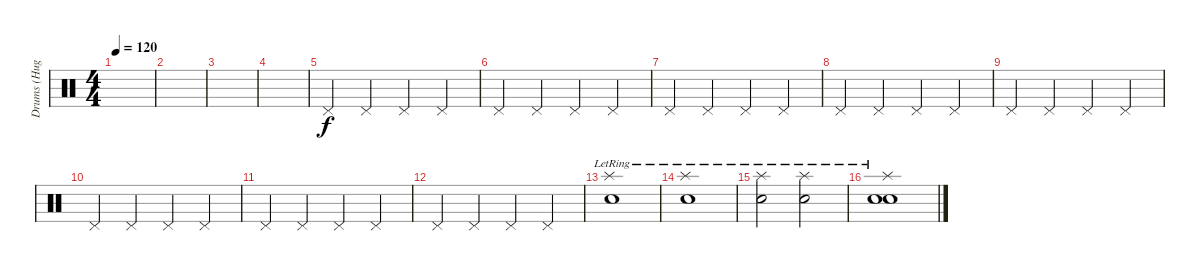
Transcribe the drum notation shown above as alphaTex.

\track ("Drums (Hugo)" "Drums (Hug") {instrument percussion}
\staff {score}
\articulation defaults
\ts (4 4)
\tempo 120
\clef neutral
\ks c
|
|
|
|
"Pedal Hi-Hat (hit)".4 "Pedal Hi-Hat (hit)".4 "Pedal Hi-Hat (hit)".4 "Pedal Hi-Hat (hit)".4 |
"Pedal Hi-Hat (hit)".4 "Pedal Hi-Hat (hit)".4 "Pedal Hi-Hat (hit)".4 "Pedal Hi-Hat (hit)".4 |
"Pedal Hi-Hat (hit)".4 "Pedal Hi-Hat (hit)".4 "Pedal Hi-Hat (hit)".4 "Pedal Hi-Hat (hit)".4 |
"Pedal Hi-Hat (hit)".4 "Pedal Hi-Hat (hit)".4 "Pedal Hi-Hat (hit)".4 "Pedal Hi-Hat (hit)".4 |
"Pedal Hi-Hat (hit)".4 "Pedal Hi-Hat (hit)".4 "Pedal Hi-Hat (hit)".4 "Pedal Hi-Hat (hit)".4 |
"Pedal Hi-Hat (hit)".4 "Pedal Hi-Hat (hit)".4 "Pedal Hi-Hat (hit)".4 "Pedal Hi-Hat (hit)".4 |
"Pedal Hi-Hat (hit)".4 "Pedal Hi-Hat (hit)".4 "Pedal Hi-Hat (hit)".4 "Pedal Hi-Hat (hit)".4 |
"Pedal Hi-Hat (hit)".4 "Pedal Hi-Hat (hit)".4 "Pedal Hi-Hat (hit)".4 "Pedal Hi-Hat (hit)".4 |
("Splash (hit)"{lr} "Electric Snare (hit)").1 |
("Splash (hit)"{lr} "Electric Snare (hit)").1 |
("Splash (hit)"{lr} "Electric Snare (hit)").2 ("Splash (hit)"{lr} "Electric Snare (hit)").2 |
("Splash (hit)"{lr} "Electric Snare (hit)" "Electric Snare (hit)").1
